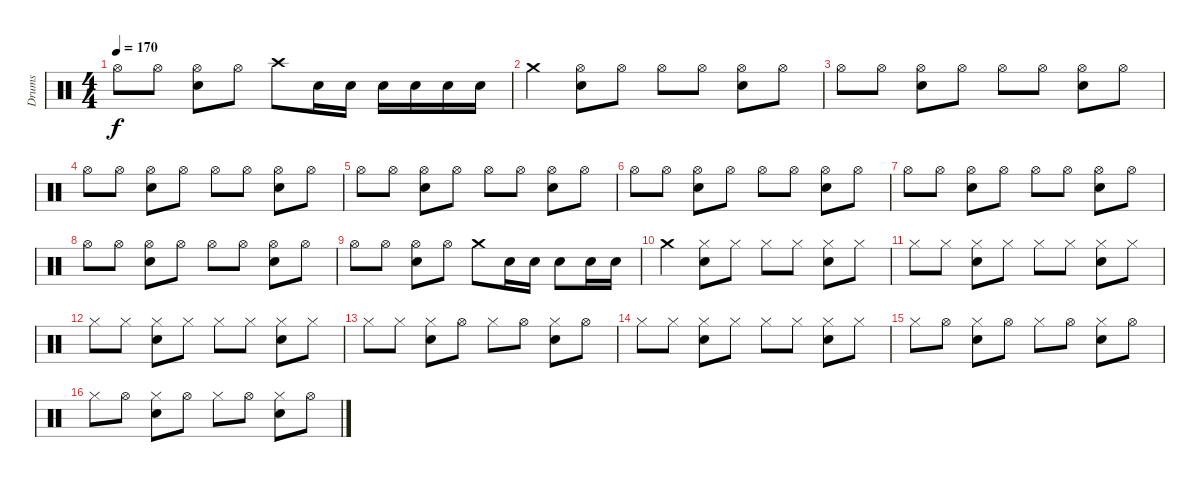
\track ("Drums" "Drums") {instrument percussion}
\staff {score}
\articulation defaults
\ts (4 4)
\tempo 170
\clef neutral
\ks c "Hi-Hat (open)".8{dy f} "Hi-Hat (open)".8
("Electric Snare (hit)" "Hi-Hat (open)").8 "Hi-Hat (open)".8 "Crash high (hit)".8 "Electric Snare (hit)".16 "Electric Snare (hit)".16 "Electric Snare (hit)".16 "Electric Snare (hit)".16 "Electric Snare (hit)".16 "Electric Snare (hit)".16 |
"Crash medium (hit)".4 ("Electric Snare (hit)" "Hi-Hat (open)").8 "Hi-Hat (open)".8 "Hi-Hat (open)".8 "Hi-Hat (open)".8 ("Electric Snare (hit)" "Hi-Hat (open)").8 "Hi-Hat (open)".8 |
"Hi-Hat (open)".8 "Hi-Hat (open)".8 ("Electric Snare (hit)" "Hi-Hat (open)").8 "Hi-Hat (open)".8 "Hi-Hat (open)".8 "Hi-Hat (open)".8 ("Electric Snare (hit)" "Hi-Hat (open)").8 "Hi-Hat (open)".8 |
"Hi-Hat (open)".8 "Hi-Hat (open)".8 ("Electric Snare (hit)" "Hi-Hat (open)").8 "Hi-Hat (open)".8 "Hi-Hat (open)".8 "Hi-Hat (open)".8 ("Electric Snare (hit)" "Hi-Hat (open)").8 "Hi-Hat (open)".8 |
"Hi-Hat (open)".8 "Hi-Hat (open)".8 ("Electric Snare (hit)" "Hi-Hat (open)").8 "Hi-Hat (open)".8 "Hi-Hat (open)".8 "Hi-Hat (open)".8 ("Electric Snare (hit)" "Hi-Hat (open)").8 "Hi-Hat (open)".8 |
"Hi-Hat (open)".8 "Hi-Hat (open)".8 ("Electric Snare (hit)" "Hi-Hat (open)").8 "Hi-Hat (open)".8 "Hi-Hat (open)".8 "Hi-Hat (open)".8 ("Electric Snare (hit)" "Hi-Hat (open)").8 "Hi-Hat (open)".8 |
"Hi-Hat (open)".8 "Hi-Hat (open)".8 ("Electric Snare (hit)" "Hi-Hat (open)").8 "Hi-Hat (open)".8 "Hi-Hat (open)".8 "Hi-Hat (open)".8 ("Electric Snare (hit)" "Hi-Hat (open)").8 "Hi-Hat (open)".8 |
"Hi-Hat (open)".8 "Hi-Hat (open)".8 ("Electric Snare (hit)" "Hi-Hat (open)").8 "Hi-Hat (open)".8 "Hi-Hat (open)".8 "Hi-Hat (open)".8 ("Electric Snare (hit)" "Hi-Hat (open)").8 "Hi-Hat (open)".8 |
"Hi-Hat (open)".8 "Hi-Hat (open)".8 ("Electric Snare (hit)" "Hi-Hat (open)").8 "Hi-Hat (open)".8 "Crash medium (hit)".8 "Electric Snare (hit)".16 "Electric Snare (hit)".16 "Electric Snare (hit)".8 "Electric Snare (hit)".16 "Electric Snare (hit)".16 |
"Crash medium (hit)".4 ("Electric Snare (hit)" "Hi-Hat (closed)").8 "Hi-Hat (closed)".8 "Hi-Hat (closed)".8 "Hi-Hat (closed)".8 ("Electric Snare (hit)" "Hi-Hat (closed)").8 "Hi-Hat (closed)".8 |
"Hi-Hat (closed)".8 "Hi-Hat (closed)".8 ("Electric Snare (hit)" "Hi-Hat (closed)").8 "Hi-Hat (closed)".8 "Hi-Hat (closed)".8 "Hi-Hat (closed)".8 ("Electric Snare (hit)" "Hi-Hat (closed)").8 "Hi-Hat (closed)".8 |
"Hi-Hat (closed)".8 "Hi-Hat (closed)".8 ("Electric Snare (hit)" "Hi-Hat (closed)").8 "Hi-Hat (closed)".8 "Hi-Hat (closed)".8 "Hi-Hat (closed)".8 ("Electric Snare (hit)" "Hi-Hat (closed)").8 "Hi-Hat (closed)".8 |
"Hi-Hat (closed)".8 "Hi-Hat (closed)".8 ("Electric Snare (hit)" "Hi-Hat (closed)").8 "Hi-Hat (open)".8 "Hi-Hat (closed)".8 "Hi-Hat (open)".8 ("Electric Snare (hit)" "Hi-Hat (closed)").8 "Hi-Hat (open)".8 |
"Hi-Hat (closed)".8 "Hi-Hat (closed)".8 ("Electric Snare (hit)" "Hi-Hat (closed)").8 "Hi-Hat (closed)".8 "Hi-Hat (closed)".8 "Hi-Hat (closed)".8 ("Electric Snare (hit)" "Hi-Hat (closed)").8 "Hi-Hat (closed)".8 |
"Hi-Hat (closed)".8 "Hi-Hat (open)".8 ("Electric Snare (hit)" "Hi-Hat (closed)").8 "Hi-Hat (open)".8 "Hi-Hat (closed)".8 "Hi-Hat (open)".8 ("Electric Snare (hit)" "Hi-Hat (closed)").8 "Hi-Hat (open)".8 |
"Hi-Hat (closed)".8 "Hi-Hat (open)".8 ("Electric Snare (hit)" "Hi-Hat (closed)").8 "Hi-Hat (open)".8 "Hi-Hat (closed)".8 "Hi-Hat (open)".8 ("Electric Snare (hit)" "Hi-Hat (closed)").8 "Hi-Hat (open)".8
